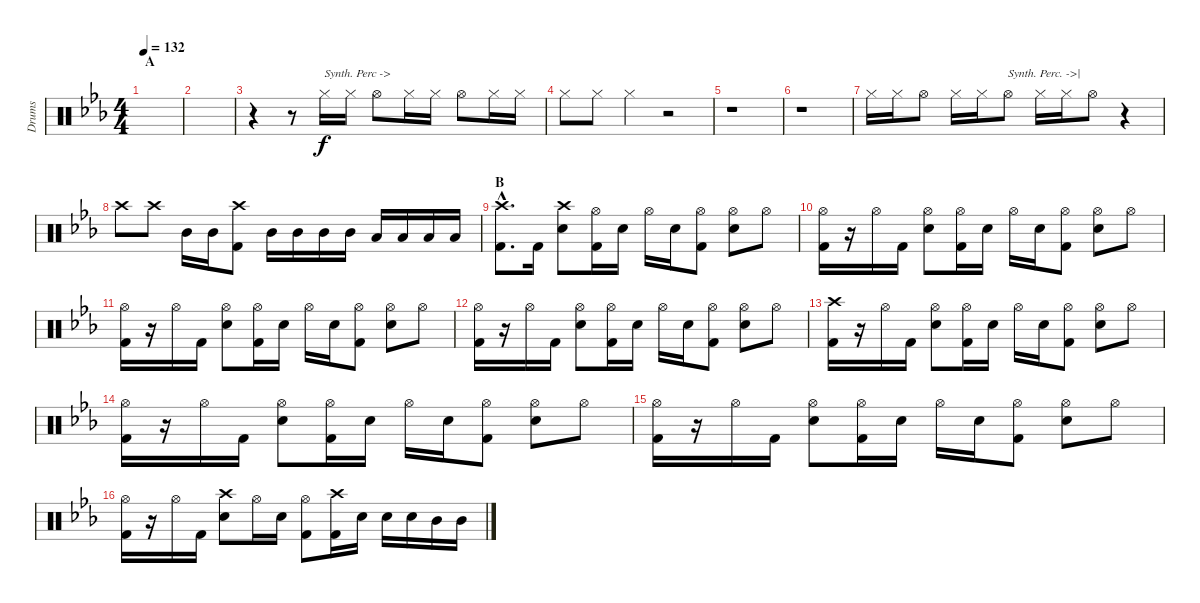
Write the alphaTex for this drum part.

\track ("Drums" "Drums") {instrument percussion}
\staff {score}
\articulation defaults
\ts (4 4)
\section ("" "A")
\tempo 132
\clef neutral
\ks eb
|
|
r.4 r.8 "Hi-Hat (closed)".16{txt "Synth. Perc ->"} "Hi-Hat (closed)".16 "Hi-Hat (open)".8 "Hi-Hat (closed)".16 "Hi-Hat (closed)".16 "Hi-Hat (open)".8 "Hi-Hat (closed)".16 "Hi-Hat (closed)".16 |
"Hi-Hat (closed)".8 "Hi-Hat (closed)".8 "Hi-Hat (closed)".4 r.2 |
r.1 |
r.1 |
"Hi-Hat (closed)".16 "Hi-Hat (closed)".16 "Hi-Hat (open)".8 "Hi-Hat (closed)".16 "Hi-Hat (closed)".16 "Hi-Hat (open)".8{txt "Synth. Perc. ->|"} "Hi-Hat (closed)".16 "Hi-Hat (closed)".16 "Hi-Hat (open)".8 r.4 |
"Crash high (hit)".8 "Crash high (hit)".8 "Mid Tom (hit)".16 "Mid Tom (hit)".16 ("Crash high (hit)" "Kick (hit) 2").8 "Mid Tom (hit)".16 "Mid Tom (hit)".16 "Mid Tom (hit)".16 "Mid Tom (hit)".16 "Low Tom (hit)".16 "Low Tom (hit)".16 "Low Tom (hit)".16 "Low Tom (hit)".16 |
\section ("" "B")
("Crash high (hit)"{hac} "Kick (hit) 2"{hac}).8{d} "Kick (hit) 2".16 ("Crash high (hit)" "Snare (hit) 2").8 ("Hi-Hat (open)" "Kick (hit) 2").16 "Snare (hit) 2".16 "Hi-Hat (open)".16 "Snare (hit) 2".16 ("Hi-Hat (open)" "Kick (hit) 2").8 ("Hi-Hat (open)" "Snare (hit) 2").8 "Hi-Hat (open)".8 |
("Hi-Hat (open)" "Kick (hit) 2").16 r.16 "Hi-Hat (open)".16 "Kick (hit) 2".16 ("Hi-Hat (open)" "Snare (hit) 2").8 ("Hi-Hat (open)" "Kick (hit) 2").16 "Snare (hit) 2".16 "Hi-Hat (open)".16 "Snare (hit) 2".16 ("Hi-Hat (open)" "Kick (hit) 2").8 ("Hi-Hat (open)" "Snare (hit) 2").8 "Hi-Hat (open)".8 |
("Hi-Hat (open)" "Kick (hit) 2").16 r.16 "Hi-Hat (open)".16 "Kick (hit) 2".16 ("Hi-Hat (open)" "Snare (hit) 2").8 ("Hi-Hat (open)" "Kick (hit) 2").16 "Snare (hit) 2".16 "Hi-Hat (open)".16 "Snare (hit) 2".16 ("Hi-Hat (open)" "Kick (hit) 2").8 ("Hi-Hat (open)" "Snare (hit) 2").8 "Hi-Hat (open)".8 |
("Hi-Hat (open)" "Kick (hit) 2").16 r.16 "Hi-Hat (open)".16 "Kick (hit) 2".16 ("Hi-Hat (open)" "Snare (hit) 2").8 ("Hi-Hat (open)" "Kick (hit) 2").16 "Snare (hit) 2".16 "Hi-Hat (open)".16 "Snare (hit) 2".16 ("Hi-Hat (open)" "Kick (hit) 2").8 ("Hi-Hat (open)" "Snare (hit) 2").8 "Hi-Hat (open)".8 |
("Crash high (hit)" "Kick (hit) 2").16 r.16 "Hi-Hat (open)".16 "Kick (hit) 2".16 ("Hi-Hat (open)" "Snare (hit) 2").8 ("Hi-Hat (open)" "Kick (hit) 2").16 "Snare (hit) 2".16 "Hi-Hat (open)".16 "Snare (hit) 2".16 ("Hi-Hat (open)" "Kick (hit) 2").8 ("Hi-Hat (open)" "Snare (hit) 2").8 "Hi-Hat (open)".8 |
("Hi-Hat (open)" "Kick (hit) 2").16 r.16 "Hi-Hat (open)".16 "Kick (hit) 2".16 ("Hi-Hat (open)" "Snare (hit) 2").8 ("Hi-Hat (open)" "Kick (hit) 2").16 "Snare (hit) 2".16 "Hi-Hat (open)".16 "Snare (hit) 2".16 ("Hi-Hat (open)" "Kick (hit) 2").8 ("Hi-Hat (open)" "Snare (hit) 2").8 "Hi-Hat (open)".8 |
("Hi-Hat (open)" "Kick (hit) 2").16 r.16 "Hi-Hat (open)".16 "Kick (hit) 2".16 ("Hi-Hat (open)" "Snare (hit) 2").8 ("Hi-Hat (open)" "Kick (hit) 2").16 "Snare (hit) 2".16 "Hi-Hat (open)".16 "Snare (hit) 2".16 ("Hi-Hat (open)" "Kick (hit) 2").8 ("Hi-Hat (open)" "Snare (hit) 2").8 "Hi-Hat (open)".8 |
("Hi-Hat (open)" "Kick (hit) 2").16 r.16 "Hi-Hat (open)".16 "Kick (hit) 2".16 ("Crash high (hit)" "Snare (hit) 2").8 "Hi-Hat (open)".16 "Snare (hit) 2".16 ("Hi-Hat (open)" "Kick (hit) 2").8 ("Crash high (hit)" "Kick (hit) 2").16 "Snare (hit) 2".16 "Snare (hit) 2".16 "Snare (hit) 2".16 "Mid Tom (hit)".16 "Mid Tom (hit)".16
